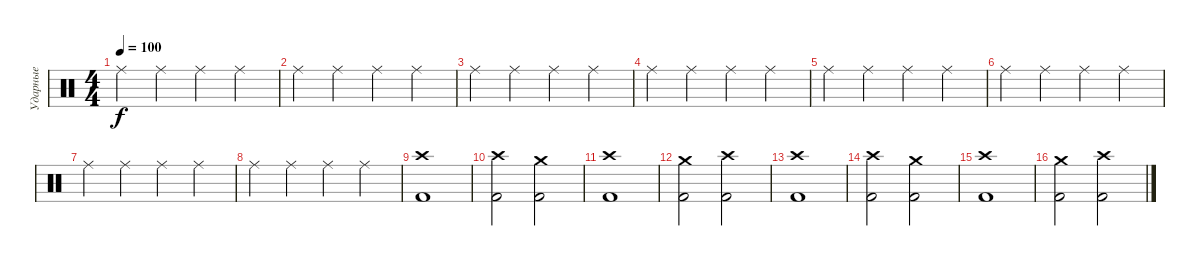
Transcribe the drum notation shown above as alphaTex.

\track ("Ударные" "Ударные") {instrument percussion}
\staff {score}
\articulation defaults
\ts (4 4)
\tempo 100
\clef neutral
\ks c "Ride (middle)".4{dy f} "Ride (middle)".4 "Ride (middle)".4 "Ride (middle)".4
|
"Ride (middle)".4 "Ride (middle)".4 "Ride (middle)".4 "Ride (middle)".4 |
"Ride (middle)".4 "Ride (middle)".4 "Ride (middle)".4 "Ride (middle)".4 |
"Ride (middle)".4 "Ride (middle)".4 "Ride (middle)".4 "Ride (middle)".4 |
"Ride (middle)".4 "Ride (middle)".4 "Ride (middle)".4 "Ride (middle)".4 |
"Ride (middle)".4 "Ride (middle)".4 "Ride (middle)".4 "Ride (middle)".4 |
"Ride (middle)".4 "Ride (middle)".4 "Ride (middle)".4 "Ride (middle)".4 |
"Ride (middle)".4 "Ride (middle)".4 "Ride (middle)".4 "Ride (middle)".4 |
("Kick (hit) 2" "Crash high (hit)").1 |
("Kick (hit) 2" "Crash high (hit)").2 ("Kick (hit) 2" "Crash medium (hit)").2 |
("Kick (hit) 2" "Crash high (hit)").1 |
("Kick (hit) 2" "Crash medium (hit)").2 ("Kick (hit) 2" "Crash high (hit)").2 |
("Kick (hit) 2" "Crash high (hit)").1 |
("Kick (hit) 2" "Crash high (hit)").2 ("Kick (hit) 2" "Crash medium (hit)").2 |
("Kick (hit) 2" "Crash high (hit)").1 |
("Kick (hit) 2" "Crash medium (hit)").2 ("Kick (hit) 2" "Crash high (hit)").2
